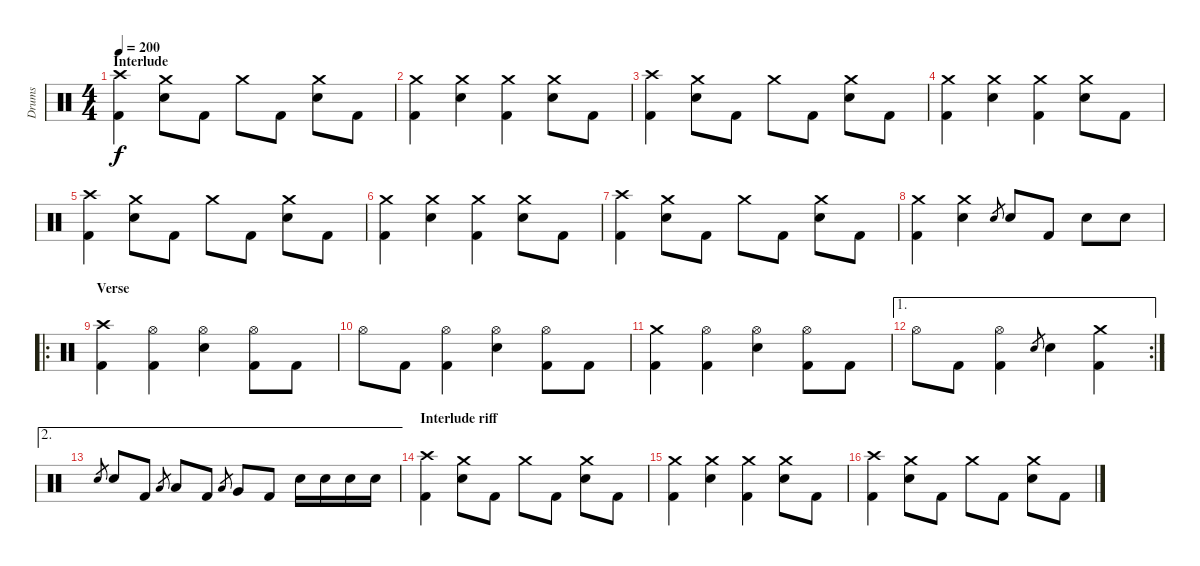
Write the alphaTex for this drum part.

\track ("Drums" "Drums") {instrument percussion}
\staff {score}
\articulation defaults
\ts (4 4)
\section ("" "Interlude")
\tempo 200
\clef neutral
\ks c
("Crash high (hit)" "Kick (hit) 2").4{dy f} ("Crash medium (hit)" "Electric Snare (hit)").8 "Kick (hit) 2".8 "Crash medium (hit)".8 "Kick (hit) 2".8 ("Crash medium (hit)" "Electric Snare (hit)").8 "Kick (hit) 2".8 |
("Crash medium (hit)" "Kick (hit) 2").4 ("Crash medium (hit)" "Electric Snare (hit)").4 ("Crash medium (hit)" "Kick (hit) 2").4 ("Crash medium (hit)" "Electric Snare (hit)").8 "Kick (hit) 2".8 |
("Crash high (hit)" "Kick (hit) 2").4 ("Crash medium (hit)" "Electric Snare (hit)").8 "Kick (hit) 2".8 "Crash medium (hit)".8 "Kick (hit) 2".8 ("Crash medium (hit)" "Electric Snare (hit)").8 "Kick (hit) 2".8 |
("Crash medium (hit)" "Kick (hit) 2").4 ("Crash medium (hit)" "Electric Snare (hit)").4 ("Crash medium (hit)" "Kick (hit) 2").4 ("Crash medium (hit)" "Electric Snare (hit)").8 "Kick (hit) 2".8 |
("Crash high (hit)" "Kick (hit) 2").4 ("Crash medium (hit)" "Electric Snare (hit)").8 "Kick (hit) 2".8 "Crash medium (hit)".8 "Kick (hit) 2".8 ("Crash medium (hit)" "Electric Snare (hit)").8 "Kick (hit) 2".8 |
("Crash medium (hit)" "Kick (hit) 2").4 ("Crash medium (hit)" "Electric Snare (hit)").4 ("Crash medium (hit)" "Kick (hit) 2").4 ("Crash medium (hit)" "Electric Snare (hit)").8 "Kick (hit) 2".8 |
("Crash high (hit)" "Kick (hit) 2").4 ("Crash medium (hit)" "Electric Snare (hit)").8 "Kick (hit) 2".8 "Crash medium (hit)".8 "Kick (hit) 2".8 ("Crash medium (hit)" "Electric Snare (hit)").8 "Kick (hit) 2".8 |
("Crash medium (hit)" "Kick (hit) 2").4 ("Crash medium (hit)" "Electric Snare (hit)").4 "Electric Snare (hit)".8{gr} "Electric Snare (hit)".8 "Kick (hit) 2".8 "Electric Snare (hit)".8 "Electric Snare (hit)".8 |
\ro
\section ("" "Verse")
("Crash high (hit)" "Kick (hit) 2").4 ("Hi-Hat (open)" "Kick (hit) 2").4 ("Hi-Hat (open)" "Electric Snare (hit)").4 ("Hi-Hat (open)" "Kick (hit) 2").8 "Kick (hit) 2".8 |
"Hi-Hat (open)".8 "Kick (hit) 2".8 ("Hi-Hat (open)" "Kick (hit) 2").4 ("Hi-Hat (open)" "Electric Snare (hit)").4 ("Hi-Hat (open)" "Kick (hit) 2").8 "Kick (hit) 2".8 |
("Crash medium (hit)" "Kick (hit) 2").4 ("Hi-Hat (open)" "Kick (hit) 2").4 ("Hi-Hat (open)" "Electric Snare (hit)").4 ("Hi-Hat (open)" "Kick (hit) 2").8 "Kick (hit) 2".8 |
\ae 1
\rc 2 "Hi-Hat (open)".8 "Kick (hit) 2".8
("Hi-Hat (open)" "Kick (hit) 2").4 "Electric Snare (hit)".8{gr} "Electric Snare (hit)".4 ("Crash medium (hit)" "Kick (hit) 2").4 |
\ae 2 "Electric Snare (hit)".8{gr} "Electric Snare (hit)".8 "Kick (hit) 2".8 "Low Floor Tom (hit)".8{gr} "Low Tom (hit)".8 "Kick (hit) 2".8 "Low Floor Tom (hit)".8{gr} "Very Low Tom (hit)".8 "Kick (hit) 2".8 "Electric Snare (hit)".16 "Electric Snare (hit)".16 "Electric Snare (hit)".16 "Electric Snare (hit)".16
|
\section ("" "Interlude riff")
("Crash high (hit)" "Kick (hit) 2").4 ("Crash medium (hit)" "Electric Snare (hit)").8 "Kick (hit) 2".8 "Crash medium (hit)".8 "Kick (hit) 2".8 ("Crash medium (hit)" "Electric Snare (hit)").8 "Kick (hit) 2".8 |
("Crash medium (hit)" "Kick (hit) 2").4 ("Crash medium (hit)" "Electric Snare (hit)").4 ("Crash medium (hit)" "Kick (hit) 2").4 ("Crash medium (hit)" "Electric Snare (hit)").8 "Kick (hit) 2".8 |
("Crash high (hit)" "Kick (hit) 2").4 ("Crash medium (hit)" "Electric Snare (hit)").8 "Kick (hit) 2".8 "Crash medium (hit)".8 "Kick (hit) 2".8 ("Crash medium (hit)" "Electric Snare (hit)").8 "Kick (hit) 2".8
